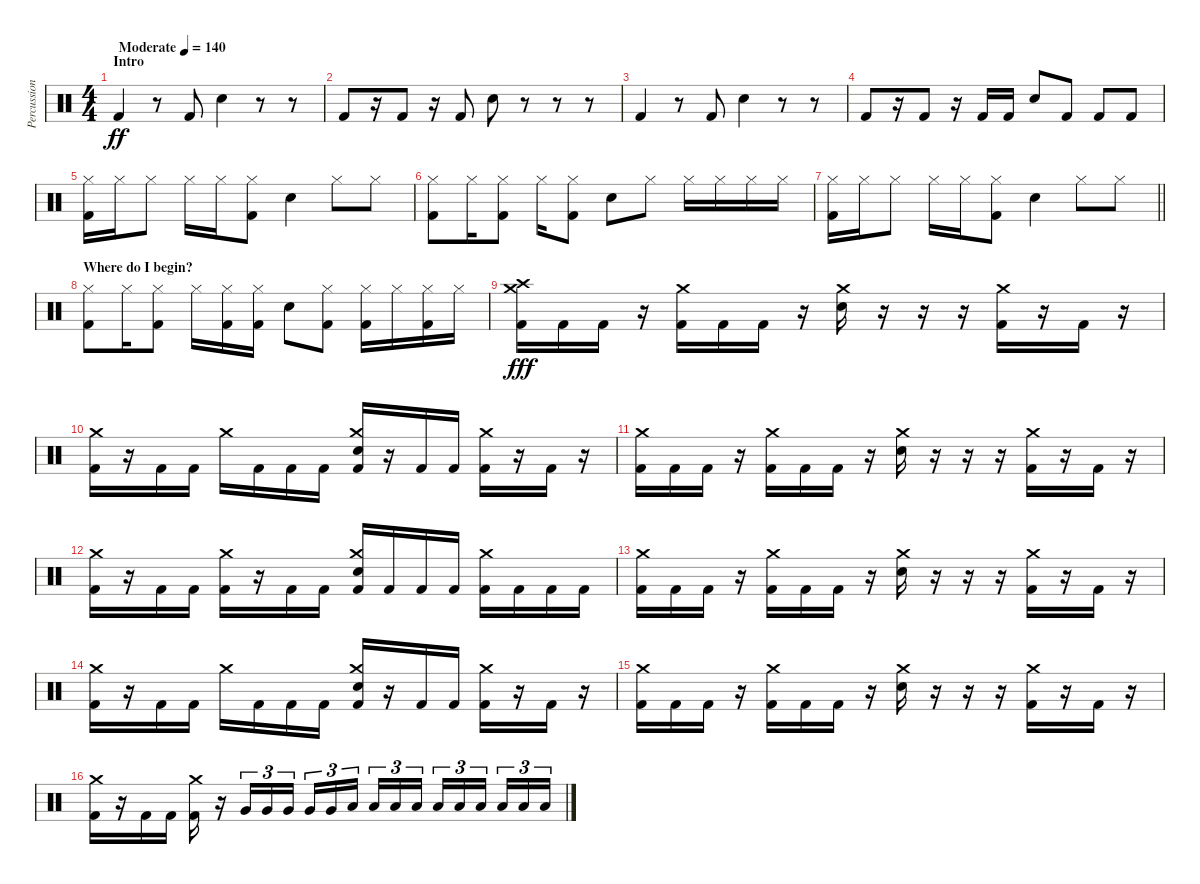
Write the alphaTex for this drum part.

\track ("Percussion" "Percussion") {instrument percussion}
\staff {score}
\articulation defaults
\ts (4 4)
\section ("" "Intro")
\tempo (140 "Moderate")
\clef neutral
\ks c "Kick (hit) 2".4{dy ff}
r.8 "Kick (hit) 2".8 "Hand Clap (hit)".4 r.8 r.8 |
"Kick (hit) 2".8 r.16 "Kick (hit) 2".8 r.16 "Kick (hit) 2".8 "Hand Clap (hit)".8 r.8 r.8 r.8 |
"Kick (hit) 2".4 r.8 "Kick (hit) 2".8 "Hand Clap (hit)".4 r.8 r.8 |
"Kick (hit) 2".8 r.16 "Kick (hit) 2".8 r.16 "Kick (hit) 2".16 "Kick (hit) 2".16 "Hand Clap (hit)".8 "Kick (hit) 2".8 "Kick (hit) 2".8 "Kick (hit) 2".8 |
("Hi-Hat (closed)" "Kick (hit) 2").16 "Hi-Hat (closed)".16 "Hi-Hat (closed)".8 "Hi-Hat (closed)".16 "Hi-Hat (closed)".16 ("Hi-Hat (closed)" "Kick (hit) 2").8 "Hand Clap (hit)".4 "Hi-Hat (closed)".8 "Hi-Hat (closed)".8 |
("Hi-Hat (closed)" "Kick (hit) 2").8 "Hi-Hat (closed)".16 ("Hi-Hat (closed)" "Kick (hit) 2").8 "Hi-Hat (closed)".16 ("Hi-Hat (closed)" "Kick (hit) 2").8 "Hand Clap (hit)".8 "Hi-Hat (closed)".8 "Hi-Hat (closed)".16 "Hi-Hat (closed)".16 "Hi-Hat (closed)".16 "Hi-Hat (closed)".16 |
\barLineRight lightlight
("Hi-Hat (closed)" "Kick (hit) 2").16 "Hi-Hat (closed)".16 "Hi-Hat (closed)".8 "Hi-Hat (closed)".16 "Hi-Hat (closed)".16 ("Hi-Hat (closed)" "Kick (hit) 2").8 "Hand Clap (hit)".4 "Hi-Hat (closed)".8 "Hi-Hat (closed)".8 |
\section ("" "Where do I begin?")
("Hi-Hat (closed)" "Kick (hit) 2").8 "Hi-Hat (closed)".16 ("Hi-Hat (closed)" "Kick (hit) 2").8 "Hi-Hat (closed)".16 ("Hi-Hat (closed)" "Kick (hit) 2").16 ("Hi-Hat (closed)" "Kick (hit) 2").16 "Hand Clap (hit)".8 ("Hi-Hat (closed)" "Kick (hit) 2").8 ("Hi-Hat (closed)" "Kick (hit) 2").16 "Hi-Hat (closed)".16 ("Hi-Hat (closed)" "Kick (hit) 2").16 "Hi-Hat (closed)".16 |
("Crash medium (hit)" "Crash high (hit)" "Kick (hit) 2").16{dy fff} "Kick (hit) 2".16 "Kick (hit) 2".16 r.16 ("Crash medium (hit)" "Kick (hit) 2").16 "Kick (hit) 2".16 "Kick (hit) 2".16 r.16 ("Crash medium (hit)" "Electric Snare (hit)").16 r.16 r.16 r.16 ("Crash medium (hit)" "Kick (hit) 2").16 r.16 "Kick (hit) 2".16 r.16 |
("Crash medium (hit)" "Kick (hit) 2").16 r.16 "Kick (hit) 2".16 "Kick (hit) 2".16 "Crash medium (hit)".16 "Kick (hit) 2".16 "Kick (hit) 2".16 "Kick (hit) 2".16 ("Crash medium (hit)" "Electric Snare (hit)" "Kick (hit) 2").16 r.16 "Kick (hit) 2".16 "Kick (hit) 2".16 ("Crash medium (hit)" "Kick (hit) 2").16 r.16 "Kick (hit) 2".16 r.16 |
("Crash medium (hit)" "Kick (hit) 2").16 "Kick (hit) 2".16 "Kick (hit) 2".16 r.16 ("Crash medium (hit)" "Kick (hit) 2").16 "Kick (hit) 2".16 "Kick (hit) 2".16 r.16 ("Crash medium (hit)" "Electric Snare (hit)").16 r.16 r.16 r.16 ("Crash medium (hit)" "Kick (hit) 2").16 r.16 "Kick (hit) 2".16 r.16 |
("Crash medium (hit)" "Kick (hit) 2").16 r.16 "Kick (hit) 2".16 "Kick (hit) 2".16 ("Crash medium (hit)" "Kick (hit) 2").16 r.16 "Kick (hit) 2".16 "Kick (hit) 2".16 ("Crash medium (hit)" "Electric Snare (hit)" "Kick (hit) 2").16 "Kick (hit) 2".16 "Kick (hit) 2".16 "Kick (hit) 2".16 ("Crash medium (hit)" "Kick (hit) 2").16 "Kick (hit) 2".16 "Kick (hit) 2".16 "Kick (hit) 2".16 |
("Crash medium (hit)" "Kick (hit) 2").16 "Kick (hit) 2".16 "Kick (hit) 2".16 r.16 ("Crash medium (hit)" "Kick (hit) 2").16 "Kick (hit) 2".16 "Kick (hit) 2".16 r.16 ("Crash medium (hit)" "Electric Snare (hit)").16 r.16 r.16 r.16 ("Crash medium (hit)" "Kick (hit) 2").16 r.16 "Kick (hit) 2".16 r.16 |
("Crash medium (hit)" "Kick (hit) 2").16 r.16 "Kick (hit) 2".16 "Kick (hit) 2".16 "Crash medium (hit)".16 "Kick (hit) 2".16 "Kick (hit) 2".16 "Kick (hit) 2".16 ("Crash medium (hit)" "Electric Snare (hit)" "Kick (hit) 2").16 r.16 "Kick (hit) 2".16 "Kick (hit) 2".16 ("Crash medium (hit)" "Kick (hit) 2").16 r.16 "Kick (hit) 2".16 r.16 |
("Crash medium (hit)" "Kick (hit) 2").16 "Kick (hit) 2".16 "Kick (hit) 2".16 r.16 ("Crash medium (hit)" "Kick (hit) 2").16 "Kick (hit) 2".16 "Kick (hit) 2".16 r.16 ("Crash medium (hit)" "Electric Snare (hit)").16 r.16 r.16 r.16 ("Crash medium (hit)" "Kick (hit) 2").16 r.16 "Kick (hit) 2".16 r.16 |
("Crash medium (hit)" "Kick (hit) 2").16 r.16 "Kick (hit) 2".16 "Kick (hit) 2".16 ("Crash medium (hit)" "Kick (hit) 2").16 r.16 "Very Low Tom (hit)".16{tu (3 2)} "Very Low Tom (hit)".16{tu (3 2)} "Very Low Tom (hit)".16{tu (3 2)} "Very Low Tom (hit)".16{tu (3 2)} "Very Low Tom (hit)".16{tu (3 2)} "Low Tom (hit)".16{tu (3 2) beam splitsecondary} "Low Tom (hit)".16{tu (3 2)} "Low Tom (hit)".16{tu (3 2)} "Low Tom (hit)".16{tu (3 2)} "Low Tom (hit)".16{tu (3 2)} "Low Tom (hit)".16{tu (3 2)} "Low Floor Tom (hit)".16{tu (3 2) beam splitsecondary} "Low Floor Tom (hit)".16{tu (3 2)} "Low Floor Tom (hit)".16{tu (3 2)} "Low Floor Tom (hit)".16{tu (3 2)}
